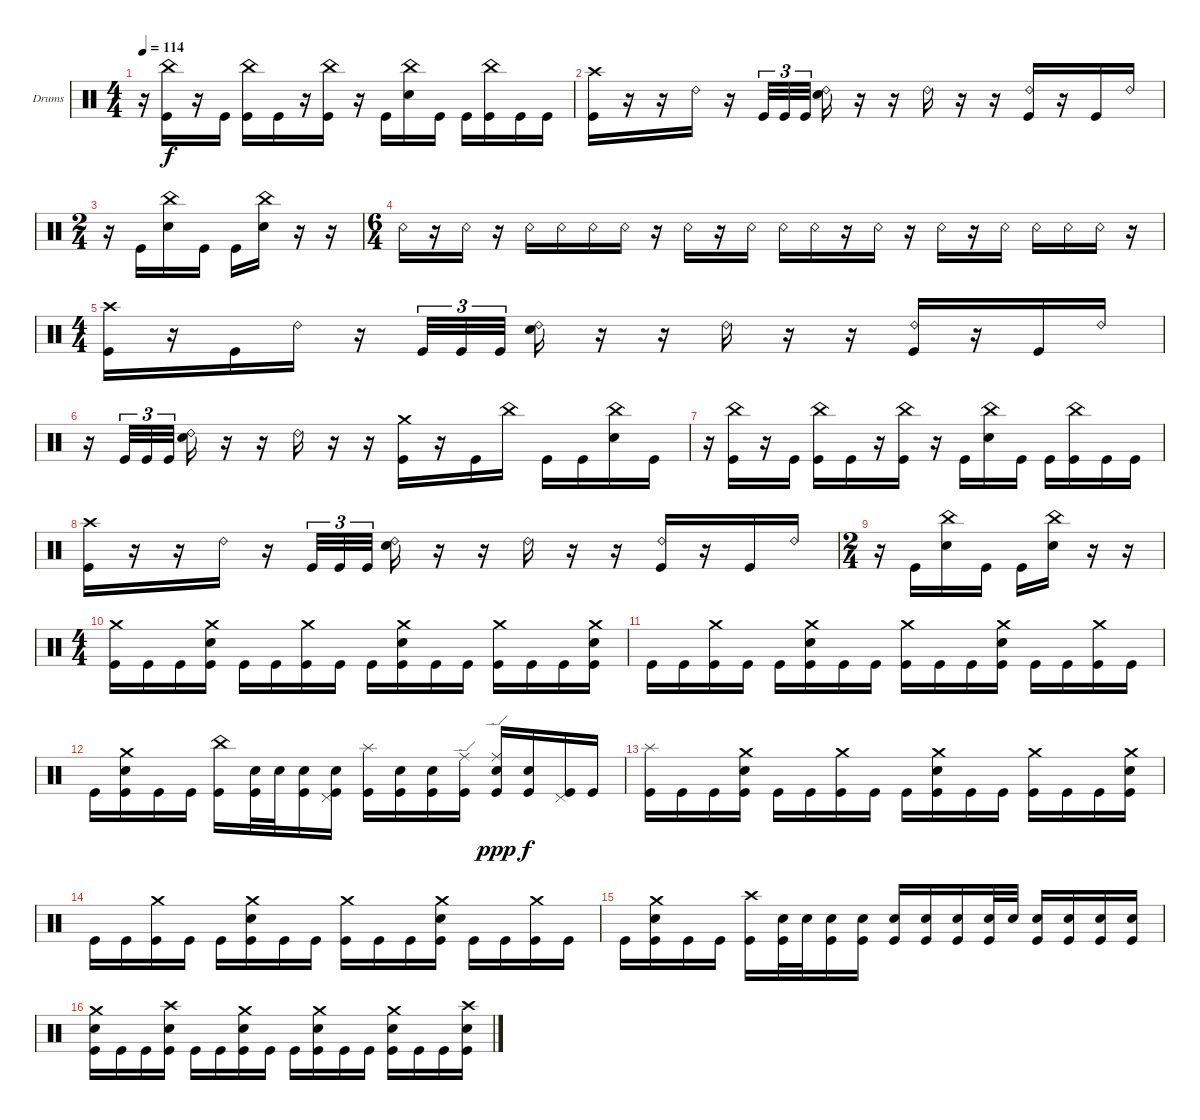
\bracketExtendMode groupsimilarinstruments
\firstSystemTrackNameOrientation horizontal
\otherSystemsTrackNameOrientation horizontal
\track ("Drumkit" "Drums") {instrument percussion}
\staff {score}
\articulation defaults
\ts (4 4)
\tempo 114
\clef neutral
\ks c
r.16{dy f} ("China (hit)" "Kick (hit)").16 r.16 "Kick (hit)".16 ("China (hit)" "Kick (hit)").16 "Kick (hit)".16 r.16 ("China (hit)" "Kick (hit)").16 r.16 "Kick (hit)".16 ("China (hit)" "Snare (hit) 2").16 "Kick (hit)".16 "Kick (hit)".16 ("China (hit)" "Kick (hit)").16 "Kick (hit)".16 "Kick (hit)".16 |
("Crash high (hit)" "Kick (hit)").16 r.16 r.16 "Ride (bell) 2".16 r.16 "Kick (hit)".32{tu (3 2)} "Kick (hit)".32{tu (3 2)} "Kick (hit)".32{tu (3 2)} ("Ride (bell) 2" "Snare (hit) 2").16 r.16 r.16 "Ride (bell) 2".16 r.16 r.16 ("Ride (bell) 2" "Kick (hit)").16 r.16 "Kick (hit)".16 "Ride (bell) 2".16 |
\ts (2 4)
r.16 "Kick (hit)".16 ("China (hit)" "Snare (hit) 2").16 "Kick (hit)".16 "Kick (hit)".16 ("China (hit)" "Snare (hit) 2").16 r.16 r.16 |
\ts (6 4)
"Snare (rim shot)".16 r.16 "Snare (rim shot)".16 r.16 "Snare (rim shot)".16 "Snare (rim shot)".16 "Snare (rim shot)".16 "Snare (rim shot)".16 r.16 "Snare (rim shot)".16 r.16 "Snare (rim shot)".16 "Snare (rim shot)".16 "Snare (rim shot)".16 r.16 "Snare (rim shot)".16 r.16 "Snare (rim shot)".16 r.16 "Snare (rim shot)".16 "Snare (rim shot)".16 "Snare (rim shot)".16 "Snare (rim shot)".16 r.16 |
\ts (4 4)
("Crash high (hit)" "Kick (hit)").16 r.16 "Kick (hit)".16 "Ride (bell) 2".16 r.16 "Kick (hit)".32{tu (3 2)} "Kick (hit)".32{tu (3 2)} "Kick (hit)".32{tu (3 2)} ("Ride (bell) 2" "Snare (hit) 2").16 r.16 r.16 "Ride (bell) 2".16 r.16 r.16 ("Ride (bell) 2" "Kick (hit)").16 r.16 "Kick (hit)".16 "Ride (bell) 2".16 |
r.16 "Kick (hit)".32{tu (3 2)} "Kick (hit)".32{tu (3 2)} "Kick (hit)".32{tu (3 2)} ("Ride (bell) 2" "Snare (hit) 2").16 r.16 r.16 "Ride (bell) 2".16 r.16 r.16 ("Crash medium (hit)" "Kick (hit)").16 r.16 "Kick (hit)".16 "China (hit)".16 "Kick (hit)".16 "Kick (hit)".16 ("China (hit)" "Snare (hit) 2").16 "Kick (hit)".16 |
r.16 ("China (hit)" "Kick (hit)").16 r.16 "Kick (hit)".16 ("China (hit)" "Kick (hit)").16 "Kick (hit)".16 r.16 ("China (hit)" "Kick (hit)").16 r.16 "Kick (hit)".16 ("China (hit)" "Snare (hit) 2").16 "Kick (hit)".16 "Kick (hit)".16 ("China (hit)" "Kick (hit)").16 "Kick (hit)".16 "Kick (hit)".16 |
("Crash high (hit)" "Kick (hit)").16 r.16 r.16 "Ride (bell) 2".16 r.16 "Kick (hit)".32{tu (3 2)} "Kick (hit)".32{tu (3 2)} "Kick (hit)".32{tu (3 2)} ("Ride (bell) 2" "Snare (hit) 2").16 r.16 r.16 "Ride (bell) 2".16 r.16 r.16 ("Ride (bell) 2" "Kick (hit)").16 r.16 "Kick (hit)".16 "Ride (bell) 2".16 |
\ts (2 4)
r.16 "Kick (hit)".16 ("China (hit)" "Snare (hit) 2").16 "Kick (hit)".16 "Kick (hit)".16 ("China (hit)" "Snare (hit) 2").16 r.16 r.16 |
\ts (4 4)
("Crash medium (hit)" "Kick (hit)").16 "Kick (hit)".16 "Kick (hit)".16 ("Crash medium (hit)" "Snare (hit) 2" "Kick (hit)").16 "Kick (hit)".16 "Kick (hit)".16 ("Crash medium (hit)" "Kick (hit)").16 "Kick (hit)".16 "Kick (hit)".16 ("Crash medium (hit)" "Snare (hit) 2" "Kick (hit)").16 "Kick (hit)".16 "Kick (hit)".16 ("Crash medium (hit)" "Kick (hit)").16 "Kick (hit)".16 "Kick (hit)".16 ("Crash medium (hit)" "Snare (hit) 2" "Kick (hit)").16 |
"Kick (hit)".16 "Kick (hit)".16 ("Crash medium (hit)" "Kick (hit)").16 "Kick (hit)".16 "Kick (hit)".16 ("Crash medium (hit)" "Snare (hit) 2" "Kick (hit)").16 "Kick (hit)".16 "Kick (hit)".16 ("Crash medium (hit)" "Kick (hit)").16 "Kick (hit)".16 "Kick (hit)".16 ("Crash medium (hit)" "Snare (hit) 2" "Kick (hit)").16 "Kick (hit)".16 "Kick (hit)".16 ("Crash medium (hit)" "Kick (hit)").16 "Kick (hit)".16 |
"Kick (hit)".16 ("Crash medium (hit)" "Snare (hit) 2" "Kick (hit)").16 "Kick (hit)".16 "Kick (hit)".16 ("China (hit)" "Kick (hit)").16 ("Snare (hit) 2" "Kick (hit)").32 "Snare (hit) 2".32 ("Snare (hit) 2" "Kick (hit)").16 ("Pedal Hi-Hat (hit)" "Snare (hit) 2" "Kick (hit)").16 ("Splash (hit)" "Kick (hit)").16 ("Snare (hit) 2" "Kick (hit)").16 ("Snare (hit) 2" "Kick (hit)").16 ("Ride (edge)" "Kick (hit)").16 ("Ride (edge)" "Snare (hit) 2" "Kick (hit)").16{dy ppp} ("Snare (hit) 2" "Kick (hit)").16{dy f} ("Pedal Hi-Hat (hit)" "Kick (hit)").16 "Kick (hit)".16 |
("Splash (hit)" "Kick (hit)").16 "Kick (hit)".16 "Kick (hit)".16 ("Crash medium (hit)" "Snare (hit) 2" "Kick (hit)").16 "Kick (hit)".16 "Kick (hit)".16 ("Crash medium (hit)" "Kick (hit)").16 "Kick (hit)".16 "Kick (hit)".16 ("Crash medium (hit)" "Snare (hit) 2" "Kick (hit)").16 "Kick (hit)".16 "Kick (hit)".16 ("Crash medium (hit)" "Kick (hit)").16 "Kick (hit)".16 "Kick (hit)".16 ("Crash medium (hit)" "Snare (hit) 2" "Kick (hit)").16 |
"Kick (hit)".16 "Kick (hit)".16 ("Crash medium (hit)" "Kick (hit)").16 "Kick (hit)".16 "Kick (hit)".16 ("Crash medium (hit)" "Snare (hit) 2" "Kick (hit)").16 "Kick (hit)".16 "Kick (hit)".16 ("Crash medium (hit)" "Kick (hit)").16 "Kick (hit)".16 "Kick (hit)".16 ("Crash medium (hit)" "Snare (hit) 2" "Kick (hit)").16 "Kick (hit)".16 "Kick (hit)".16 ("Crash medium (hit)" "Kick (hit)").16 "Kick (hit)".16 |
"Kick (hit)".16 ("Crash medium (hit)" "Snare (hit) 2" "Kick (hit)").16 "Kick (hit)".16 "Kick (hit)".16 ("Crash high (hit)" "Kick (hit)").16 ("Snare (hit) 2" "Kick (hit)").32 "Snare (hit) 2".32 ("Snare (hit) 2" "Kick (hit)").16 ("Snare (hit) 2" "Kick (hit)").16 ("Snare (hit) 2" "Kick (hit)").16 ("Snare (hit) 2" "Kick (hit)").16 ("Snare (hit) 2" "Kick (hit)").16 ("Snare (hit) 2" "Kick (hit)").32 "Snare (hit) 2".32 ("Snare (hit) 2" "Kick (hit)").16 ("Snare (hit) 2" "Kick (hit)").16 ("Snare (hit) 2" "Kick (hit)").16 ("Snare (hit) 2" "Kick (hit)").16 |
("Crash medium (hit)" "Snare (hit) 2" "Kick (hit)").16 "Kick (hit)".16 "Kick (hit)".16 ("Crash high (hit)" "Snare (hit) 2" "Kick (hit)").16 "Kick (hit)".16 "Kick (hit)".16 ("Crash medium (hit)" "Snare (hit) 2" "Kick (hit)").16 "Kick (hit)".16 "Kick (hit)".16 ("Crash medium (hit)" "Snare (hit) 2" "Kick (hit)").16 "Kick (hit)".16 "Kick (hit)".16 ("Crash medium (hit)" "Snare (hit) 2" "Kick (hit)").16 "Kick (hit)".16 "Kick (hit)".16 ("Crash high (hit)" "Snare (hit) 2" "Kick (hit)").16
